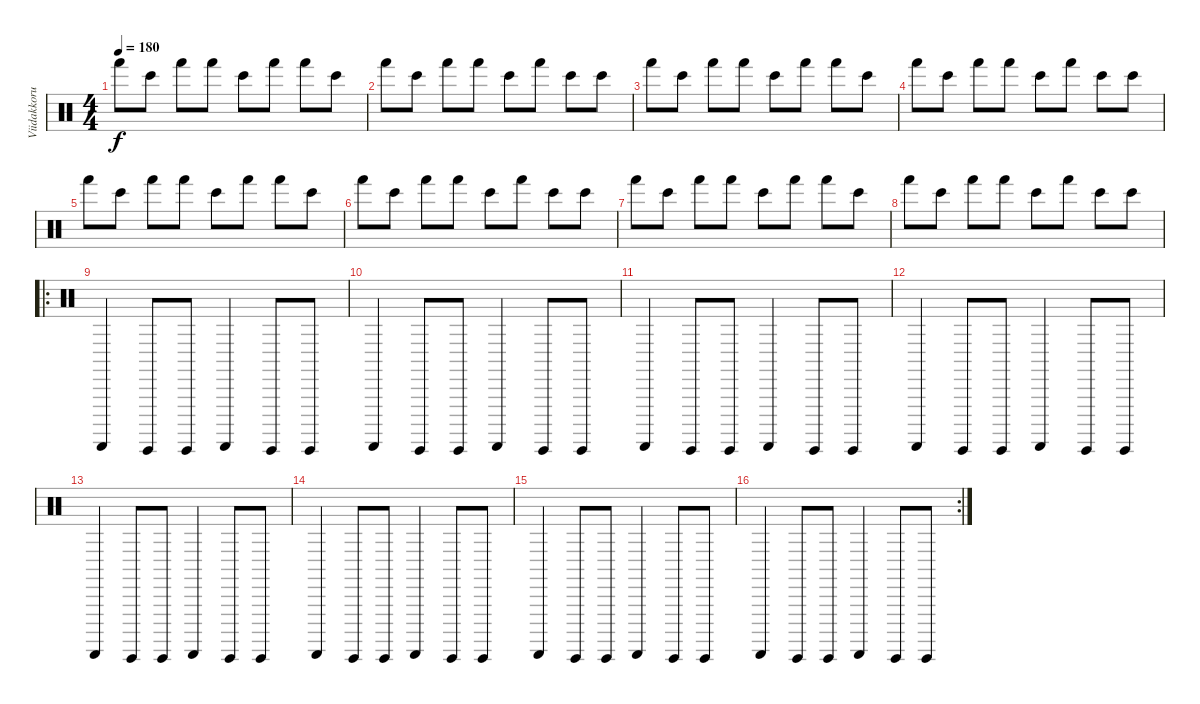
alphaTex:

\track ("Viidakkorummut" "Viidakkoru") {instrument percussion}
\staff {score}
\articulation defaults
\ts (4 4)
\tempo 180
\clef neutral
\ks c "Hand (hit)".8{dy f} "Bongo High (hit)".8 "Hand (hit)".8 "Hand (hit)".8 "Bongo High (hit)".8 "Hand (hit)".8 "Hand (hit)".8 "Bongo High (hit)".8
|
"Hand (hit)".8 "Bongo High (hit)".8 "Hand (hit)".8 "Hand (hit)".8 "Bongo High (hit)".8 "Hand (hit)".8 "Bongo High (hit)".8 "Bongo High (hit)".8 |
"Hand (hit)".8 "Bongo High (hit)".8 "Hand (hit)".8 "Hand (hit)".8 "Bongo High (hit)".8 "Hand (hit)".8 "Hand (hit)".8 "Bongo High (hit)".8 |
"Hand (hit)".8 "Bongo High (hit)".8 "Hand (hit)".8 "Hand (hit)".8 "Bongo High (hit)".8 "Hand (hit)".8 "Bongo High (hit)".8 "Bongo High (hit)".8 |
"Hand (hit)".8 "Bongo High (hit)".8 "Hand (hit)".8 "Hand (hit)".8 "Bongo High (hit)".8 "Hand (hit)".8 "Hand (hit)".8 "Bongo High (hit)".8 |
"Hand (hit)".8 "Bongo High (hit)".8 "Hand (hit)".8 "Hand (hit)".8 "Bongo High (hit)".8 "Hand (hit)".8 "Bongo High (hit)".8 "Bongo High (hit)".8 |
"Hand (hit)".8 "Bongo High (hit)".8 "Hand (hit)".8 "Hand (hit)".8 "Bongo High (hit)".8 "Hand (hit)".8 "Hand (hit)".8 "Bongo High (hit)".8 |
"Hand (hit)".8 "Bongo High (hit)".8 "Hand (hit)".8 "Hand (hit)".8 "Bongo High (hit)".8 "Hand (hit)".8 "Bongo High (hit)".8 "Bongo High (hit)".8 |
\ro "Guiro (scrap-return)".4 "Guiro (hit)".8 "Guiro (hit)".8 "Guiro (scrap-return)".4 "Guiro (hit)".8 "Guiro (hit)".8
|
"Guiro (scrap-return)".4 "Guiro (hit)".8 "Guiro (hit)".8 "Guiro (scrap-return)".4 "Guiro (hit)".8 "Guiro (hit)".8 |
"Guiro (scrap-return)".4 "Guiro (hit)".8 "Guiro (hit)".8 "Guiro (scrap-return)".4 "Guiro (hit)".8 "Guiro (hit)".8 |
"Guiro (scrap-return)".4 "Guiro (hit)".8 "Guiro (hit)".8 "Guiro (scrap-return)".4 "Guiro (hit)".8 "Guiro (hit)".8 |
"Guiro (scrap-return)".4 "Guiro (hit)".8 "Guiro (hit)".8 "Guiro (scrap-return)".4 "Guiro (hit)".8 "Guiro (hit)".8 |
"Guiro (scrap-return)".4 "Guiro (hit)".8 "Guiro (hit)".8 "Guiro (scrap-return)".4 "Guiro (hit)".8 "Guiro (hit)".8 |
"Guiro (scrap-return)".4 "Guiro (hit)".8 "Guiro (hit)".8 "Guiro (scrap-return)".4 "Guiro (hit)".8 "Guiro (hit)".8 |
\rc 2 "Guiro (scrap-return)".4 "Guiro (hit)".8 "Guiro (hit)".8 "Guiro (scrap-return)".4 "Guiro (hit)".8 "Guiro (hit)".8
